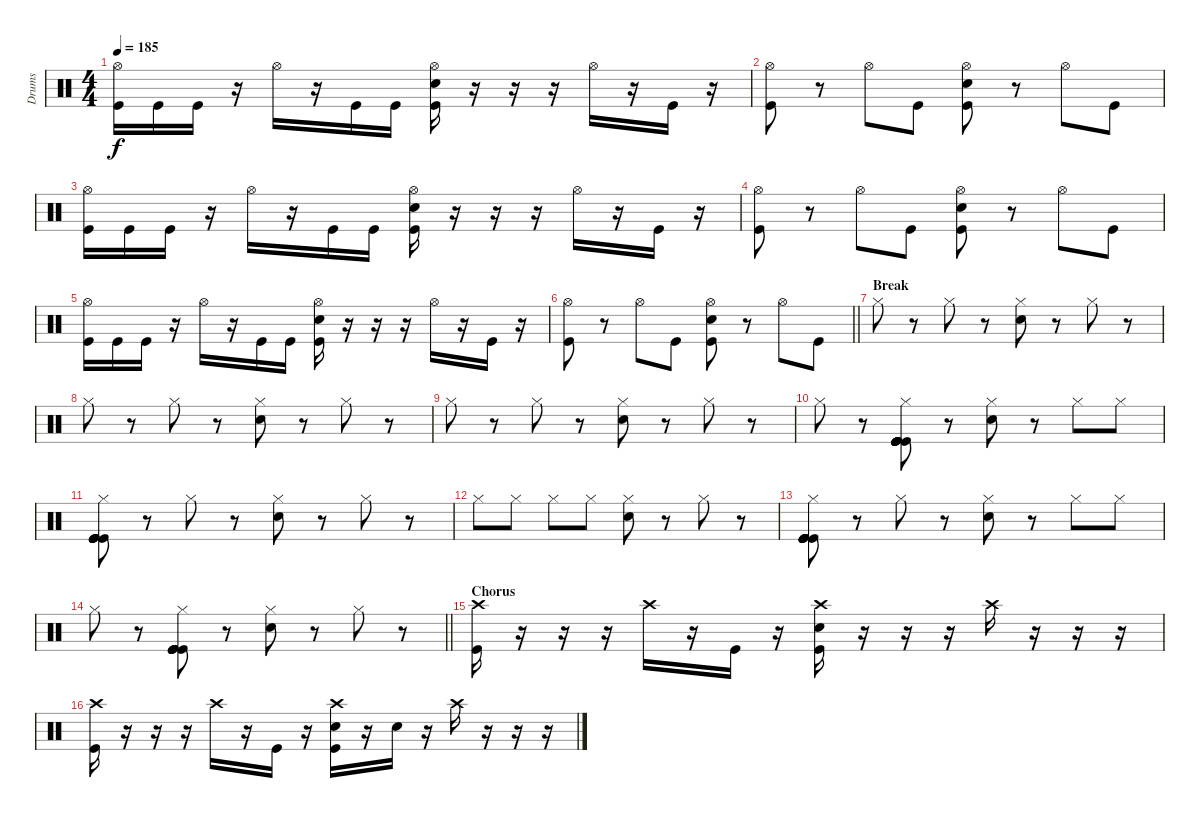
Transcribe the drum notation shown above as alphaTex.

\track ("Drums" "Drums") {instrument percussion}
\staff {score}
\articulation defaults
\ts (4 4)
\tempo 185
\clef neutral
\ks c
("Hi-Hat (open)" "Kick (hit)").16{dy f} "Kick (hit)".16 "Kick (hit)".16 r.16 "Hi-Hat (open)".16 r.16 "Kick (hit)".16 "Kick (hit)".16 ("Hi-Hat (open)" "Snare (hit) 2" "Kick (hit)").16 r.16 r.16 r.16 "Hi-Hat (open)".16 r.16 "Kick (hit)".16 r.16 |
("Hi-Hat (open)" "Kick (hit)").8 r.8 "Hi-Hat (open)".8 "Kick (hit)".8 ("Hi-Hat (open)" "Snare (hit) 2" "Kick (hit)").8 r.8 "Hi-Hat (open)".8 "Kick (hit)".8 |
("Hi-Hat (open)" "Kick (hit)").16 "Kick (hit)".16 "Kick (hit)".16 r.16 "Hi-Hat (open)".16 r.16 "Kick (hit)".16 "Kick (hit)".16 ("Hi-Hat (open)" "Snare (hit) 2" "Kick (hit)").16 r.16 r.16 r.16 "Hi-Hat (open)".16 r.16 "Kick (hit)".16 r.16 |
("Hi-Hat (open)" "Kick (hit)").8 r.8 "Hi-Hat (open)".8 "Kick (hit)".8 ("Hi-Hat (open)" "Snare (hit) 2" "Kick (hit)").8 r.8 "Hi-Hat (open)".8 "Kick (hit)".8 |
("Hi-Hat (open)" "Kick (hit)").16 "Kick (hit)".16 "Kick (hit)".16 r.16 "Hi-Hat (open)".16 r.16 "Kick (hit)".16 "Kick (hit)".16 ("Hi-Hat (open)" "Snare (hit) 2" "Kick (hit)").16 r.16 r.16 r.16 "Hi-Hat (open)".16 r.16 "Kick (hit)".16 r.16 |
\barLineRight lightlight
("Hi-Hat (open)" "Kick (hit)").8 r.8 "Hi-Hat (open)".8 "Kick (hit)".8 ("Hi-Hat (open)" "Snare (hit) 2" "Kick (hit)").8 r.8 "Hi-Hat (open)".8 "Kick (hit)".8 |
\section ("" "Break")
"Hi-Hat (closed)".8{volume 7} r.8 "Hi-Hat (closed)".8 r.8 ("Hi-Hat (closed)" "Snare (hit) 2").8 r.8 "Hi-Hat (closed)".8 r.8 |
"Hi-Hat (closed)".8 r.8 "Hi-Hat (closed)".8 r.8 ("Hi-Hat (closed)" "Snare (hit) 2").8 r.8 "Hi-Hat (closed)".8 r.8 |
"Hi-Hat (closed)".8 r.8 "Hi-Hat (closed)".8 r.8 ("Hi-Hat (closed)" "Snare (hit) 2").8 r.8 "Hi-Hat (closed)".8 r.8 |
"Hi-Hat (closed)".8 r.8 ("Kick (hit)" "Kick (hit)" "Kick (hit)" "Hi-Hat (closed)" "Kick (hit)" "Kick (hit)").8 r.8 ("Hi-Hat (closed)" "Snare (hit) 2").8 r.8 "Hi-Hat (closed)".8 "Hi-Hat (closed)".8 |
("Kick (hit)" "Kick (hit)" "Kick (hit)" "Hi-Hat (closed)" "Kick (hit)" "Kick (hit)").8 r.8 "Hi-Hat (closed)".8 r.8 ("Hi-Hat (closed)" "Snare (hit) 2").8 r.8 "Hi-Hat (closed)".8 r.8 |
"Hi-Hat (closed)".8 "Hi-Hat (closed)".8 "Hi-Hat (closed)".8 "Hi-Hat (closed)".8 ("Hi-Hat (closed)" "Snare (hit) 2").8 r.8 "Hi-Hat (closed)".8 r.8 |
("Kick (hit)" "Kick (hit)" "Kick (hit)" "Hi-Hat (closed)" "Kick (hit)" "Kick (hit)").8 r.8 "Hi-Hat (closed)".8 r.8 ("Hi-Hat (closed)" "Snare (hit) 2").8 r.8 "Hi-Hat (closed)".8 "Hi-Hat (closed)".8 |
\barLineRight lightlight "Hi-Hat (closed)".8
r.8 ("Kick (hit)" "Kick (hit)" "Kick (hit)" "Hi-Hat (closed)" "Kick (hit)" "Kick (hit)").8 r.8 ("Hi-Hat (closed)" "Snare (hit) 2").8 r.8 "Hi-Hat (closed)".8 r.8 |
\section ("" "Chorus")
("Crash high (hit)" "Kick (hit)").16{volume 14} r.16 r.16 r.16 "Crash high (hit)".16 r.16 "Kick (hit)".16 r.16 ("Crash high (hit)" "Snare (hit) 2" "Kick (hit)").16 r.16 r.16 r.16 "Crash high (hit)".16 r.16 r.16 r.16 |
("Crash high (hit)" "Kick (hit)").16 r.16 r.16 r.16 "Crash high (hit)".16 r.16 "Kick (hit)".16 r.16 ("Crash high (hit)" "Snare (hit) 2" "Kick (hit)").16 r.16 "Snare (hit) 2".16 r.16 "Crash high (hit)".16 r.16 r.16 r.16
